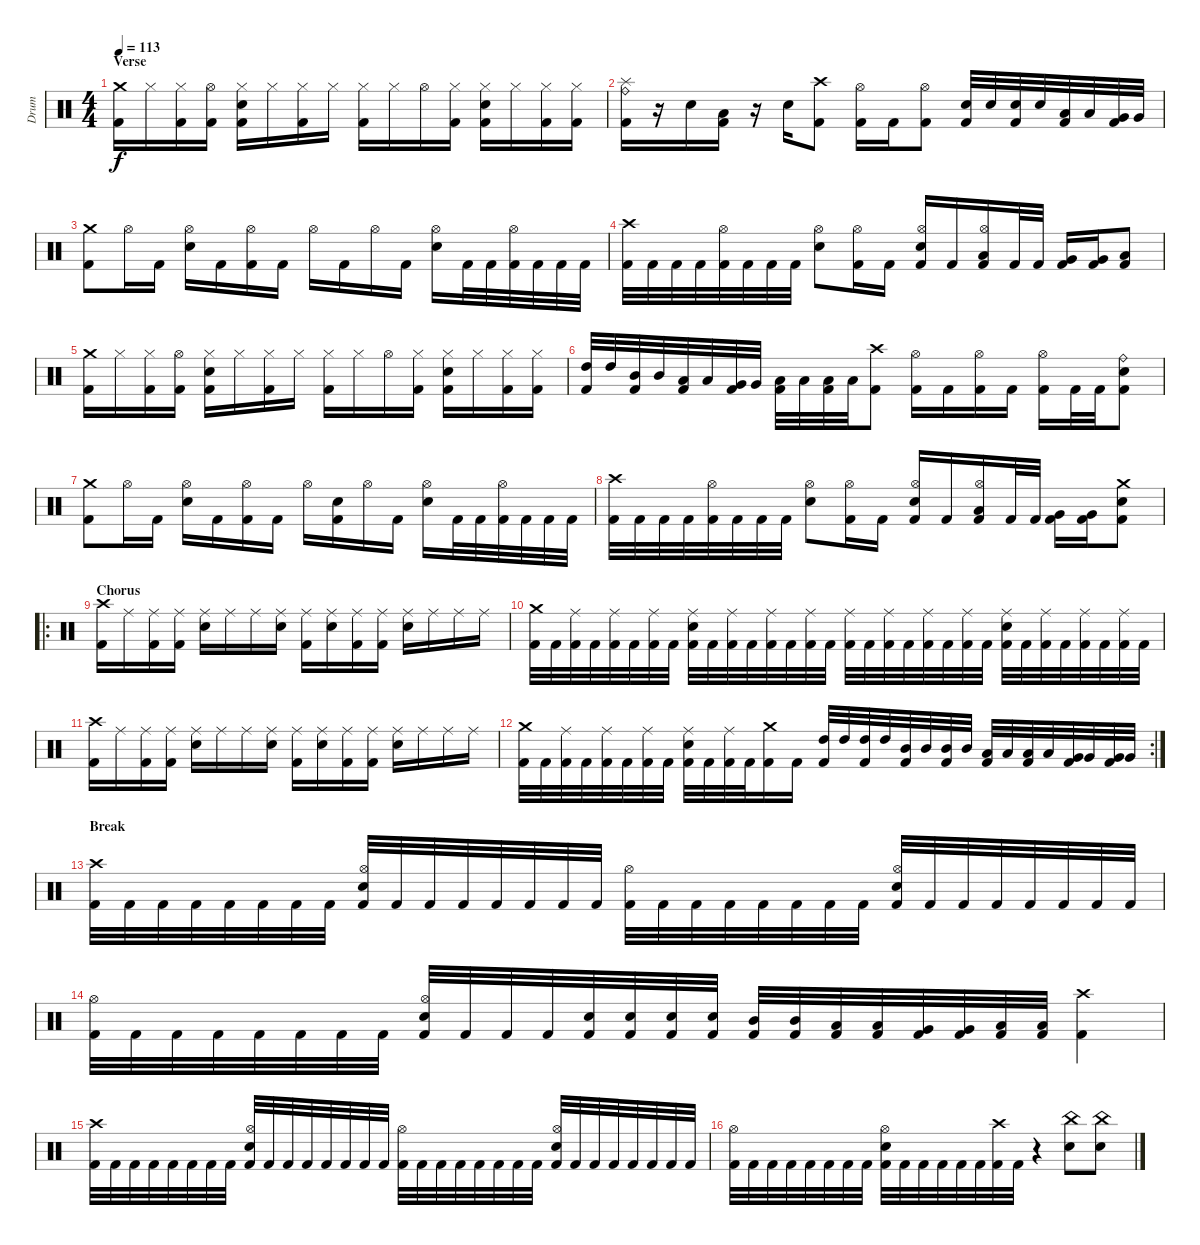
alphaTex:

\track ("Drum" "Drum") {instrument percussion}
\staff {score}
\articulation defaults
\ts (4 4)
\section ("" "Verse")
\tempo 113
\clef neutral
\ks c
("Crash medium (hit)" "Kick (hit) 2").16{dy f} "Hi-Hat (closed)".16 ("Hi-Hat (closed)" "Kick (hit) 2").16 ("Hi-Hat (open)" "Kick (hit) 2").16 ("Hi-Hat (closed)" "Electric Snare (hit)" "Kick (hit) 2").16 "Hi-Hat (closed)".16 ("Hi-Hat (closed)" "Kick (hit) 2").16 "Hi-Hat (closed)".16 ("Hi-Hat (closed)" "Kick (hit) 2").16 "Hi-Hat (closed)".16 "Hi-Hat (open)".16 ("Hi-Hat (closed)" "Kick (hit) 2").16 ("Hi-Hat (closed)" "Electric Snare (hit)" "Kick (hit) 2").16 "Hi-Hat (closed)".16 ("Hi-Hat (closed)" "Kick (hit) 2").16 ("Hi-Hat (closed)" "Kick (hit) 2").16 |
("Ride (bell)" "Splash (hit)" "Kick (hit) 2").16 r.16 "Electric Snare (hit)".16 ("Low Tom (hit)" "Kick (hit) 2").16 r.16 "Electric Snare (hit)".16 ("Crash high (hit)" "Kick (hit) 2").8 ("Hi-Hat (open)" "Kick (hit) 2").16 "Kick (hit) 2".16 ("Hi-Hat (open)" "Kick (hit) 2").8 ("Electric Snare (hit)" "Kick (hit) 2").32 "Electric Snare (hit)".32 ("Electric Snare (hit)" "Kick (hit) 2").32 "Electric Snare (hit)".32 ("Low Tom (hit)" "Kick (hit) 2").32 "Low Tom (hit)".32 ("Very Low Tom (hit)" "Kick (hit) 2").32 "Very Low Tom (hit)".32 |
("Crash medium (hit)" "Kick (hit) 2").8 "Hi-Hat (open)".16 "Kick (hit) 2".16 ("Hi-Hat (open)" "Electric Snare (hit)").16 "Kick (hit) 2".16 ("Hi-Hat (open)" "Kick (hit) 2").16 "Kick (hit) 2".16 "Hi-Hat (open)".16 "Kick (hit) 2".16 "Hi-Hat (open)".16 "Kick (hit) 2".16 ("Hi-Hat (open)" "Electric Snare (hit)").16 "Kick (hit) 2".32 "Kick (hit) 2".32 ("Hi-Hat (open)" "Kick (hit) 2").32 "Kick (hit) 2".32 "Kick (hit) 2".32 "Kick (hit) 2".32 |
("Crash high (hit)" "Kick (hit) 2").32 "Kick (hit) 2".32 "Kick (hit) 2".32 "Kick (hit) 2".32 ("Hi-Hat (open)" "Kick (hit) 2").32 "Kick (hit) 2".32 "Kick (hit) 2".32 "Kick (hit) 2".32 ("Hi-Hat (open)" "Electric Snare (hit)").8 ("Hi-Hat (open)" "Kick (hit) 2").16 "Kick (hit) 2".16 ("Hi-Hat (open)" "Electric Snare (hit)" "Kick (hit) 2").16 "Kick (hit) 2".16 ("Low Tom (hit)" "Hi-Hat (open)" "Kick (hit) 2").16 "Kick (hit) 2".32 "Kick (hit) 2".32 ("Very Low Tom (hit)" "Kick (hit) 2").16 ("Very Low Tom (hit)" "Kick (hit) 2").16 ("Low Floor Tom (hit)" "Kick (hit) 2").8 |
("Crash medium (hit)" "Kick (hit) 2").16 "Hi-Hat (closed)".16 ("Hi-Hat (closed)" "Kick (hit) 2").16 ("Hi-Hat (open)" "Kick (hit) 2").16 ("Hi-Hat (closed)" "Electric Snare (hit)" "Kick (hit) 2").16 "Hi-Hat (closed)".16 ("Hi-Hat (closed)" "Kick (hit) 2").16 "Hi-Hat (closed)".16 ("Hi-Hat (closed)" "Kick (hit) 2").16 "Hi-Hat (closed)".16 "Hi-Hat (open)".16 ("Hi-Hat (closed)" "Kick (hit) 2").16 ("Hi-Hat (closed)" "Electric Snare (hit)" "Kick (hit) 2").16 "Hi-Hat (closed)".16 ("Hi-Hat (closed)" "Kick (hit) 2").16 ("Hi-Hat (closed)" "Kick (hit) 2").16 |
("High Tom (hit)" "Kick (hit) 2").32 "High Tom (hit)".32 ("Mid Tom (hit)" "Kick (hit) 2").32 "Mid Tom (hit)".32 ("Low Tom (hit)" "Kick (hit) 2").32 "Low Tom (hit)".32 ("Very Low Tom (hit)" "Kick (hit) 2").32 "Very Low Tom (hit)".32 ("Low Floor Tom (hit)" "Kick (hit) 2").32 "Low Floor Tom (hit)".32 ("Low Floor Tom (hit)" "Kick (hit) 2").32 "Low Floor Tom (hit)".32 ("Crash high (hit)" "Kick (hit) 2").8 ("Hi-Hat (open)" "Kick (hit) 2").16 "Kick (hit) 2".16 ("Hi-Hat (open)" "Kick (hit) 2").16 "Kick (hit) 2".16 ("Hi-Hat (open)" "Kick (hit) 2").16 "Kick (hit) 2".32 "Kick (hit) 2".32 ("Ride (bell)" "Electric Snare (hit)" "Kick (hit) 2").8 |
("Crash medium (hit)" "Kick (hit) 2").8 "Hi-Hat (open)".16 "Kick (hit) 2".16 ("Hi-Hat (open)" "Electric Snare (hit)").16 "Kick (hit) 2".16 ("Hi-Hat (open)" "Kick (hit) 2").16 "Kick (hit) 2".16 "Hi-Hat (open)".16 ("Electric Snare (hit)" "Kick (hit) 2").16 "Hi-Hat (open)".16 "Kick (hit) 2".16 ("Hi-Hat (open)" "Electric Snare (hit)").16 "Kick (hit) 2".32 "Kick (hit) 2".32 ("Hi-Hat (open)" "Kick (hit) 2").32 "Kick (hit) 2".32 "Kick (hit) 2".32 "Kick (hit) 2".32 |
("Crash high (hit)" "Kick (hit) 2").32 "Kick (hit) 2".32 "Kick (hit) 2".32 "Kick (hit) 2".32 ("Hi-Hat (open)" "Kick (hit) 2").32 "Kick (hit) 2".32 "Kick (hit) 2".32 "Kick (hit) 2".32 ("Hi-Hat (open)" "Electric Snare (hit)").8 ("Hi-Hat (open)" "Kick (hit) 2").16 "Kick (hit) 2".16 ("Hi-Hat (open)" "Electric Snare (hit)" "Kick (hit) 2").16 "Kick (hit) 2".16 ("Low Tom (hit)" "Hi-Hat (open)" "Kick (hit) 2").16 "Kick (hit) 2".32 "Kick (hit) 2".32 ("Very Low Tom (hit)" "Kick (hit) 2").16 ("Very Low Tom (hit)" "Kick (hit) 2").16 ("Crash medium (hit)" "Electric Snare (hit)" "Kick (hit) 2").8 |
\ro
\section ("" "Chorus")
("Crash high (hit)" "Kick (hit) 2").16 "Ride (middle)".16 ("Ride (middle)" "Kick (hit) 2").16 ("Ride (middle)" "Kick (hit) 2").16 ("Ride (middle)" "Electric Snare (hit)").16 "Ride (middle)".16 "Ride (middle)".16 ("Ride (middle)" "Electric Snare (hit)").16 ("Ride (middle)" "Kick (hit) 2").16 ("Ride (middle)" "Electric Snare (hit)").16 ("Ride (middle)" "Kick (hit) 2").16 ("Ride (middle)" "Kick (hit) 2").16 ("Ride (middle)" "Electric Snare (hit)").16 "Ride (middle)".16 "Ride (middle)".16 "Ride (middle)".16 |
("Crash medium (hit)" "Kick (hit) 2").32 "Kick (hit) 2".32 ("Ride (middle)" "Kick (hit) 2").32 "Kick (hit) 2".32 ("Ride (middle)" "Kick (hit) 2").32 "Kick (hit) 2".32 ("Ride (middle)" "Kick (hit) 2").32 "Kick (hit) 2".32 ("Ride (middle)" "Electric Snare (hit)" "Kick (hit) 2").32 "Kick (hit) 2".32 ("Ride (middle)" "Kick (hit) 2").32 "Kick (hit) 2".32 ("Ride (middle)" "Kick (hit) 2").32 "Kick (hit) 2".32 ("Ride (middle)" "Kick (hit) 2").32 "Kick (hit) 2".32 ("Ride (middle)" "Kick (hit) 2").32 "Kick (hit) 2".32 ("Ride (middle)" "Kick (hit) 2").32 "Kick (hit) 2".32 ("Ride (middle)" "Kick (hit) 2").32 "Kick (hit) 2".32 ("Ride (middle)" "Kick (hit) 2").32 "Kick (hit) 2".32 ("Ride (middle)" "Electric Snare (hit)" "Kick (hit) 2").32 "Kick (hit) 2".32 ("Ride (middle)" "Kick (hit) 2").32 "Kick (hit) 2".32 ("Ride (middle)" "Kick (hit) 2").32 "Kick (hit) 2".32 ("Ride (middle)" "Kick (hit) 2").32 "Kick (hit) 2".32 |
("Crash high (hit)" "Kick (hit) 2").16 "Ride (middle)".16 ("Ride (middle)" "Kick (hit) 2").16 ("Ride (middle)" "Kick (hit) 2").16 ("Ride (middle)" "Electric Snare (hit)").16 "Ride (middle)".16 "Ride (middle)".16 ("Ride (middle)" "Electric Snare (hit)").16 ("Ride (middle)" "Kick (hit) 2").16 ("Ride (middle)" "Electric Snare (hit)").16 ("Ride (middle)" "Kick (hit) 2").16 ("Ride (middle)" "Kick (hit) 2").16 ("Ride (middle)" "Electric Snare (hit)").16 "Ride (middle)".16 "Ride (middle)".16 "Ride (middle)".16 |
\rc 2
("Crash medium (hit)" "Kick (hit) 2").32 "Kick (hit) 2".32 ("Ride (middle)" "Kick (hit) 2").32 "Kick (hit) 2".32 ("Ride (middle)" "Kick (hit) 2").32 "Kick (hit) 2".32 ("Ride (middle)" "Kick (hit) 2").32 "Kick (hit) 2".32 ("Ride (middle)" "Electric Snare (hit)" "Kick (hit) 2").32 "Kick (hit) 2".32 ("Ride (middle)" "Kick (hit) 2").32 "Kick (hit) 2".32 ("Crash medium (hit)" "Kick (hit) 2").16 "Kick (hit) 2".16 ("High Tom (hit)" "Kick (hit) 2").32 "High Tom (hit)".32 ("High Tom (hit)" "Kick (hit) 2").32 "High Tom (hit)".32 ("Mid Tom (hit)" "Kick (hit) 2").32 "Mid Tom (hit)".32 ("Mid Tom (hit)" "Kick (hit) 2").32 "Mid Tom (hit)".32 ("Low Tom (hit)" "Kick (hit) 2").32 "Low Tom (hit)".32 ("Low Tom (hit)" "Kick (hit) 2").32 "Low Tom (hit)".32 ("Very Low Tom (hit)" "Kick (hit) 2").32 "Very Low Tom (hit)".32 ("Very Low Tom (hit)" "Kick (hit) 2").32 "Very Low Tom (hit)".32 |
\section ("" "Break")
("Crash high (hit)" "Kick (hit) 2").32 "Kick (hit) 2".32 "Kick (hit) 2".32 "Kick (hit) 2".32 "Kick (hit) 2".32 "Kick (hit) 2".32 "Kick (hit) 2".32 "Kick (hit) 2".32 ("Hi-Hat (open)" "Electric Snare (hit)" "Kick (hit) 2").32 "Kick (hit) 2".32 "Kick (hit) 2".32 "Kick (hit) 2".32 "Kick (hit) 2".32 "Kick (hit) 2".32 "Kick (hit) 2".32 "Kick (hit) 2".32 ("Hi-Hat (open)" "Kick (hit) 2").32 "Kick (hit) 2".32 "Kick (hit) 2".32 "Kick (hit) 2".32 "Kick (hit) 2".32 "Kick (hit) 2".32 "Kick (hit) 2".32 "Kick (hit) 2".32 ("Hi-Hat (open)" "Electric Snare (hit)" "Kick (hit) 2").32 "Kick (hit) 2".32 "Kick (hit) 2".32 "Kick (hit) 2".32 "Kick (hit) 2".32 "Kick (hit) 2".32 "Kick (hit) 2".32 "Kick (hit) 2".32 |
("Hi-Hat (open)" "Kick (hit) 2").32 "Kick (hit) 2".32 "Kick (hit) 2".32 "Kick (hit) 2".32 "Kick (hit) 2".32 "Kick (hit) 2".32 "Kick (hit) 2".32 "Kick (hit) 2".32 ("Hi-Hat (open)" "Electric Snare (hit)" "Kick (hit) 2").32 "Kick (hit) 2".32 "Kick (hit) 2".32 "Kick (hit) 2".32 ("Electric Snare (hit)" "Kick (hit) 2").32 ("Electric Snare (hit)" "Kick (hit) 2").32 ("Electric Snare (hit)" "Kick (hit) 2").32 ("Electric Snare (hit)" "Kick (hit) 2").32 ("Mid Tom (hit)" "Kick (hit) 2").32 ("Mid Tom (hit)" "Kick (hit) 2").32 ("Low Tom (hit)" "Kick (hit) 2").32 ("Low Tom (hit)" "Kick (hit) 2").32 ("Very Low Tom (hit)" "Kick (hit) 2").32 ("Very Low Tom (hit)" "Kick (hit) 2").32 ("Low Floor Tom (hit)" "Kick (hit) 2").32 ("Low Floor Tom (hit)" "Kick (hit) 2").32 ("Crash high (hit)" "Kick (hit) 2").4 |
("Crash high (hit)" "Kick (hit) 2").32 "Kick (hit) 2".32 "Kick (hit) 2".32 "Kick (hit) 2".32 "Kick (hit) 2".32 "Kick (hit) 2".32 "Kick (hit) 2".32 "Kick (hit) 2".32 ("Hi-Hat (open)" "Electric Snare (hit)" "Kick (hit) 2").32 "Kick (hit) 2".32 "Kick (hit) 2".32 "Kick (hit) 2".32 "Kick (hit) 2".32 "Kick (hit) 2".32 "Kick (hit) 2".32 "Kick (hit) 2".32 ("Hi-Hat (open)" "Kick (hit) 2").32 "Kick (hit) 2".32 "Kick (hit) 2".32 "Kick (hit) 2".32 "Kick (hit) 2".32 "Kick (hit) 2".32 "Kick (hit) 2".32 "Kick (hit) 2".32 ("Hi-Hat (open)" "Electric Snare (hit)" "Kick (hit) 2").32 "Kick (hit) 2".32 "Kick (hit) 2".32 "Kick (hit) 2".32 "Kick (hit) 2".32 "Kick (hit) 2".32 "Kick (hit) 2".32 "Kick (hit) 2".32 |
("Hi-Hat (open)" "Kick (hit) 2").32 "Kick (hit) 2".32 "Kick (hit) 2".32 "Kick (hit) 2".32 "Kick (hit) 2".32 "Kick (hit) 2".32 "Kick (hit) 2".32 "Kick (hit) 2".32 ("Hi-Hat (open)" "Electric Snare (hit)" "Kick (hit) 2").32 "Kick (hit) 2".32 "Kick (hit) 2".32 "Kick (hit) 2".32 "Kick (hit) 2".32 "Kick (hit) 2".32 ("Crash high (hit)" "Kick (hit) 2").32 "Kick (hit) 2".32 r.4 ("China (hit)" "Electric Snare (hit)").8 ("China (hit)" "Electric Snare (hit)").8
